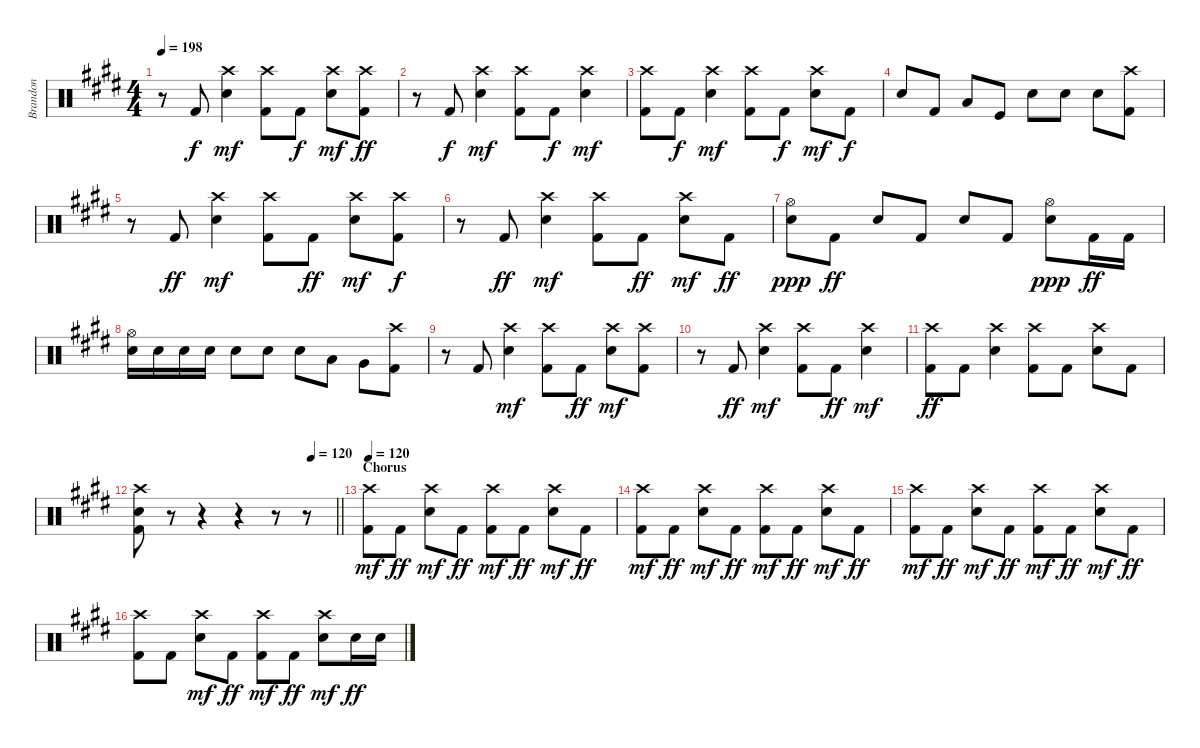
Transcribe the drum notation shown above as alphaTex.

\track ("Brandon" "Brandon") {instrument percussion}
\staff {score}
\articulation defaults
\ts (4 4)
\tempo 198
\clef neutral
\ks e
r.8{dy ff} "Kick (hit) 2".8{dy f} ("Snare (hit) 2" "Crash high (hit)").4{dy mf} ("Kick (hit) 2" "Crash high (hit)").8 "Kick (hit) 2".8{dy f} ("Snare (hit) 2" "Crash high (hit)").8{dy mf} ("Crash high (hit)" "Kick (hit) 2").8{dy ff} |
r.8 "Kick (hit) 2".8{dy f} ("Snare (hit) 2" "Crash high (hit)").4{dy mf} ("Kick (hit) 2" "Crash high (hit)").8 "Kick (hit) 2".8{dy f} ("Snare (hit) 2" "Crash high (hit)").4{dy mf} |
("Kick (hit) 2" "Crash high (hit)").8 "Kick (hit) 2".8{dy f} ("Snare (hit) 2" "Crash high (hit)").4{dy mf} ("Kick (hit) 2" "Crash high (hit)").8 "Kick (hit) 2".8{dy f} ("Snare (hit) 2" "Crash high (hit)").8{dy mf} "Kick (hit) 2".8{dy f} |
"Snare (hit) 2".8 "Kick (hit) 2".8 "Low Tom (hit)".8 "Kick (hit)".8 "Snare (hit) 2".8 "Snare (hit) 2".8 "Snare (hit) 2".8 ("Crash high (hit)" "Kick (hit) 2").8 |
r.8 "Kick (hit) 2".8{dy ff} ("Snare (hit) 2" "Crash high (hit)").4{dy mf} ("Kick (hit) 2" "Crash high (hit)").8 "Kick (hit) 2".8{dy ff} ("Snare (hit) 2" "Crash high (hit)").8{dy mf} ("Crash high (hit)" "Kick (hit) 2").8{dy f} |
r.8 "Kick (hit) 2".8{dy ff} ("Snare (hit) 2" "Crash high (hit)").4{dy mf} ("Kick (hit) 2" "Crash high (hit)").8 "Kick (hit) 2".8{dy ff} ("Snare (hit) 2" "Crash high (hit)").8{dy mf} "Kick (hit) 2".8{dy ff} |
("Snare (hit) 2" "Hi-Hat (open)").8{dy ppp} "Kick (hit) 2".8{dy ff} "Snare (hit) 2".8 "Kick (hit) 2".8 "Snare (hit) 2".8 "Kick (hit) 2".8 ("Snare (hit) 2" "Hi-Hat (open)").8{dy ppp} "Kick (hit) 2".16{dy ff} "Kick (hit) 2".16 |
("Snare (hit) 2" "Hi-Hat (open)").16 "Snare (hit) 2".16 "Snare (hit) 2".16 "Snare (hit) 2".16 "Snare (hit) 2".8 "Snare (hit) 2".8 "Snare (hit) 2".8 "Low Tom (hit)".8 "Very Low Tom (hit)".8 ("Crash high (hit)" "Kick (hit) 2").8 |
r.8 "Kick (hit) 2".8 ("Snare (hit) 2" "Crash high (hit)").4{dy mf} ("Kick (hit) 2" "Crash high (hit)").8 "Kick (hit) 2".8{dy ff} ("Snare (hit) 2" "Crash high (hit)").8{dy mf} ("Kick (hit) 2" "Crash high (hit)").8 |
r.8 "Kick (hit) 2".8{dy ff} ("Snare (hit) 2" "Crash high (hit)").4{dy mf} ("Kick (hit) 2" "Crash high (hit)").8 "Kick (hit) 2".8{dy ff} ("Snare (hit) 2" "Crash high (hit)").4{dy mf} |
("Kick (hit) 2" "Crash high (hit)").8{dy ff} "Kick (hit) 2".8 ("Snare (hit) 2" "Crash high (hit)").4 ("Kick (hit) 2" "Crash high (hit)").8 "Kick (hit) 2".8 ("Snare (hit) 2" "Crash high (hit)").8 "Kick (hit) 2".8 |
\tempo (120 0.875)
\barLineRight lightlight
("Kick (hit) 2" "Snare (hit) 2" "Crash high (hit)").8 r.8 r.4 r.4 r.8 r.8 |
\section ("" "Chorus")
\tempo 120
("Kick (hit) 2" "Crash high (hit)").8{dy mf} "Kick (hit) 2".8{dy ff} ("Snare (hit) 2" "Crash high (hit)").8{dy mf} "Kick (hit) 2".8{dy ff} ("Kick (hit) 2" "Crash high (hit)").8{dy mf} "Kick (hit) 2".8{dy ff} ("Snare (hit) 2" "Crash high (hit)").8{dy mf} "Kick (hit) 2".8{dy ff} |
("Kick (hit) 2" "Crash high (hit)").8{dy mf} "Kick (hit) 2".8{dy ff} ("Snare (hit) 2" "Crash high (hit)").8{dy mf} "Kick (hit) 2".8{dy ff} ("Kick (hit) 2" "Crash high (hit)").8{dy mf} "Kick (hit) 2".8{dy ff} ("Snare (hit) 2" "Crash high (hit)").8{dy mf} "Kick (hit) 2".8{dy ff} |
("Kick (hit) 2" "Crash high (hit)").8{dy mf} "Kick (hit) 2".8{dy ff} ("Snare (hit) 2" "Crash high (hit)").8{dy mf} "Kick (hit) 2".8{dy ff} ("Kick (hit) 2" "Crash high (hit)").8{dy mf} "Kick (hit) 2".8{dy ff} ("Snare (hit) 2" "Crash high (hit)").8{dy mf} "Kick (hit) 2".8{dy ff} |
("Kick (hit) 2" "Crash high (hit)").8 "Kick (hit) 2".8 ("Snare (hit) 2" "Crash high (hit)").8{dy mf} "Kick (hit) 2".8{dy ff} ("Kick (hit) 2" "Crash high (hit)").8{dy mf} "Kick (hit) 2".8{dy ff} ("Snare (hit) 2" "Crash high (hit)").8{dy mf} "Snare (hit) 2".16{dy ff} "Snare (hit) 2".16
